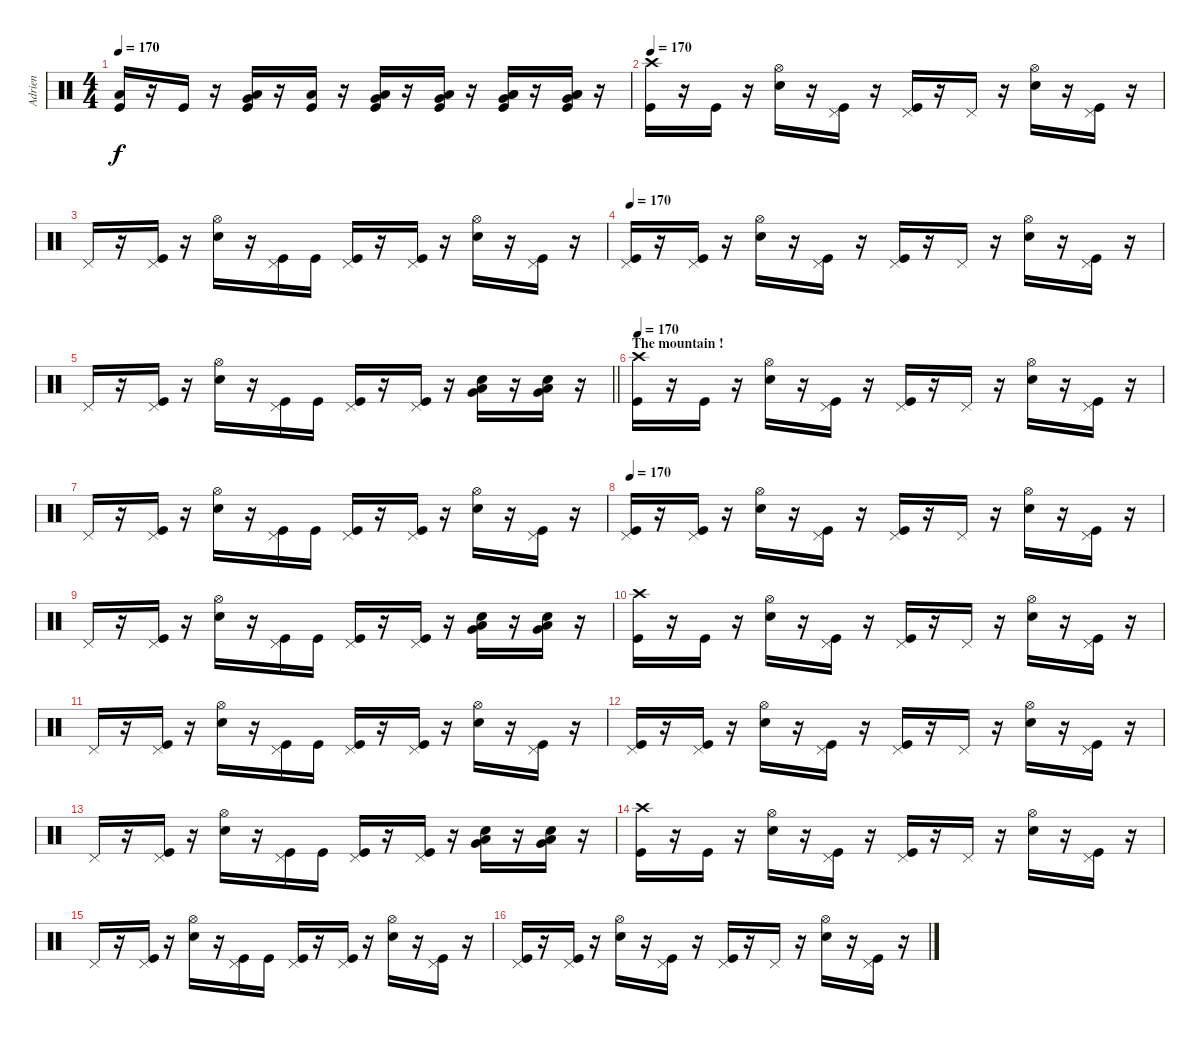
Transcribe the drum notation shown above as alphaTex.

\track ("Adrien" "Adrien") {instrument percussion}
\staff {score}
\articulation defaults
\ts (4 4)
\tempo 170
\clef neutral
\ks c
("Low Floor Tom (hit)" "Kick (hit)").16{dy f} r.16 "Kick (hit)".16 r.16 ("Very Low Tom (hit)" "Low Floor Tom (hit)" "Kick (hit)").16 r.16 ("Low Floor Tom (hit)" "Kick (hit)").16 r.16 ("Very Low Tom (hit)" "Low Floor Tom (hit)" "Kick (hit)").16 r.16 ("Very Low Tom (hit)" "Low Floor Tom (hit)" "Kick (hit)").16 r.16 ("Low Tom (hit)" "Low Floor Tom (hit)" "Very Low Tom (hit)" "Kick (hit)").16 r.16 ("Low Tom (hit)" "Low Floor Tom (hit)" "Very Low Tom (hit)" "Kick (hit)").16 r.16 |
\tempo 170
("Crash high (hit)" "Kick (hit)").16 r.16 "Kick (hit)".16 r.16 ("Hi-Hat (open)" "Electric Snare (hit)").16 r.16 ("Pedal Hi-Hat (hit)" "Kick (hit)").16 r.16 ("Pedal Hi-Hat (hit)" "Kick (hit)").16 r.16 "Pedal Hi-Hat (hit)".16 r.16 ("Hi-Hat (open)" "Electric Snare (hit)").16 r.16 ("Pedal Hi-Hat (hit)" "Kick (hit)").16 r.16 |
"Pedal Hi-Hat (hit)".16 r.16 ("Pedal Hi-Hat (hit)" "Kick (hit)").16 r.16 ("Hi-Hat (open)" "Electric Snare (hit)").16 r.16 ("Pedal Hi-Hat (hit)" "Kick (hit)").16 "Kick (hit)".16 ("Pedal Hi-Hat (hit)" "Kick (hit)").16 r.16 ("Pedal Hi-Hat (hit)" "Kick (hit)").16 r.16 ("Hi-Hat (open)" "Electric Snare (hit)").16 r.16 ("Pedal Hi-Hat (hit)" "Kick (hit)").16 r.16 |
\tempo 170
("Pedal Hi-Hat (hit)" "Kick (hit)").16 r.16 ("Pedal Hi-Hat (hit)" "Kick (hit)").16 r.16 ("Hi-Hat (open)" "Electric Snare (hit)").16 r.16 ("Pedal Hi-Hat (hit)" "Kick (hit)").16 r.16 ("Pedal Hi-Hat (hit)" "Kick (hit)").16 r.16 "Pedal Hi-Hat (hit)".16 r.16 ("Hi-Hat (open)" "Electric Snare (hit)").16 r.16 ("Pedal Hi-Hat (hit)" "Kick (hit)").16 r.16 |
\barLineRight lightlight "Pedal Hi-Hat (hit)".16
r.16 ("Pedal Hi-Hat (hit)" "Kick (hit)").16 r.16 ("Hi-Hat (open)" "Electric Snare (hit)").16 r.16 ("Pedal Hi-Hat (hit)" "Kick (hit)").16 "Kick (hit)".16 ("Pedal Hi-Hat (hit)" "Kick (hit)").16 r.16 ("Pedal Hi-Hat (hit)" "Kick (hit)").16 r.16 ("Very Low Tom (hit)" "Low Floor Tom (hit)" "Electric Snare (hit)").16 r.16 ("Very Low Tom (hit)" "Low Floor Tom (hit)" "Electric Snare (hit)").16 r.16 |
\section ("" "The mountain !")
\tempo 170
("Crash high (hit)" "Kick (hit)").16 r.16 "Kick (hit)".16 r.16 ("Hi-Hat (open)" "Electric Snare (hit)").16 r.16 ("Pedal Hi-Hat (hit)" "Kick (hit)").16 r.16 ("Pedal Hi-Hat (hit)" "Kick (hit)").16 r.16 "Pedal Hi-Hat (hit)".16 r.16 ("Hi-Hat (open)" "Electric Snare (hit)").16 r.16 ("Pedal Hi-Hat (hit)" "Kick (hit)").16 r.16 |
"Pedal Hi-Hat (hit)".16 r.16 ("Pedal Hi-Hat (hit)" "Kick (hit)").16 r.16 ("Hi-Hat (open)" "Electric Snare (hit)").16 r.16 ("Pedal Hi-Hat (hit)" "Kick (hit)").16 "Kick (hit)".16 ("Pedal Hi-Hat (hit)" "Kick (hit)").16 r.16 ("Pedal Hi-Hat (hit)" "Kick (hit)").16 r.16 ("Hi-Hat (open)" "Electric Snare (hit)").16 r.16 ("Pedal Hi-Hat (hit)" "Kick (hit)").16 r.16 |
\tempo 170
("Pedal Hi-Hat (hit)" "Kick (hit)").16 r.16 ("Pedal Hi-Hat (hit)" "Kick (hit)").16 r.16 ("Hi-Hat (open)" "Electric Snare (hit)").16 r.16 ("Pedal Hi-Hat (hit)" "Kick (hit)").16 r.16 ("Pedal Hi-Hat (hit)" "Kick (hit)").16 r.16 "Pedal Hi-Hat (hit)".16 r.16 ("Hi-Hat (open)" "Electric Snare (hit)").16 r.16 ("Pedal Hi-Hat (hit)" "Kick (hit)").16 r.16 |
"Pedal Hi-Hat (hit)".16 r.16 ("Pedal Hi-Hat (hit)" "Kick (hit)").16 r.16 ("Hi-Hat (open)" "Electric Snare (hit)").16 r.16 ("Pedal Hi-Hat (hit)" "Kick (hit)").16 "Kick (hit)".16 ("Pedal Hi-Hat (hit)" "Kick (hit)").16 r.16 ("Pedal Hi-Hat (hit)" "Kick (hit)").16 r.16 ("Very Low Tom (hit)" "Low Floor Tom (hit)" "Electric Snare (hit)").16 r.16 ("Very Low Tom (hit)" "Low Floor Tom (hit)" "Electric Snare (hit)").16 r.16 |
("Crash high (hit)" "Kick (hit)").16 r.16 "Kick (hit)".16 r.16 ("Hi-Hat (open)" "Electric Snare (hit)").16 r.16 ("Pedal Hi-Hat (hit)" "Kick (hit)").16 r.16 ("Pedal Hi-Hat (hit)" "Kick (hit)").16 r.16 "Pedal Hi-Hat (hit)".16 r.16 ("Hi-Hat (open)" "Electric Snare (hit)").16 r.16 ("Pedal Hi-Hat (hit)" "Kick (hit)").16 r.16 |
"Pedal Hi-Hat (hit)".16 r.16 ("Pedal Hi-Hat (hit)" "Kick (hit)").16 r.16 ("Hi-Hat (open)" "Electric Snare (hit)").16 r.16 ("Pedal Hi-Hat (hit)" "Kick (hit)").16 "Kick (hit)".16 ("Pedal Hi-Hat (hit)" "Kick (hit)").16 r.16 ("Pedal Hi-Hat (hit)" "Kick (hit)").16 r.16 ("Hi-Hat (open)" "Electric Snare (hit)").16 r.16 ("Pedal Hi-Hat (hit)" "Kick (hit)").16 r.16 |
("Pedal Hi-Hat (hit)" "Kick (hit)").16 r.16 ("Pedal Hi-Hat (hit)" "Kick (hit)").16 r.16 ("Hi-Hat (open)" "Electric Snare (hit)").16 r.16 ("Pedal Hi-Hat (hit)" "Kick (hit)").16 r.16 ("Pedal Hi-Hat (hit)" "Kick (hit)").16 r.16 "Pedal Hi-Hat (hit)".16 r.16 ("Hi-Hat (open)" "Electric Snare (hit)").16 r.16 ("Pedal Hi-Hat (hit)" "Kick (hit)").16 r.16 |
"Pedal Hi-Hat (hit)".16 r.16 ("Pedal Hi-Hat (hit)" "Kick (hit)").16 r.16 ("Hi-Hat (open)" "Electric Snare (hit)").16 r.16 ("Pedal Hi-Hat (hit)" "Kick (hit)").16 "Kick (hit)".16 ("Pedal Hi-Hat (hit)" "Kick (hit)").16 r.16 ("Pedal Hi-Hat (hit)" "Kick (hit)").16 r.16 ("Very Low Tom (hit)" "Low Floor Tom (hit)" "Electric Snare (hit)").16 r.16 ("Very Low Tom (hit)" "Low Floor Tom (hit)" "Electric Snare (hit)").16 r.16 |
("Crash high (hit)" "Kick (hit)").16 r.16 "Kick (hit)".16 r.16 ("Hi-Hat (open)" "Electric Snare (hit)").16 r.16 ("Pedal Hi-Hat (hit)" "Kick (hit)").16 r.16 ("Pedal Hi-Hat (hit)" "Kick (hit)").16 r.16 "Pedal Hi-Hat (hit)".16 r.16 ("Hi-Hat (open)" "Electric Snare (hit)").16 r.16 ("Pedal Hi-Hat (hit)" "Kick (hit)").16 r.16 |
"Pedal Hi-Hat (hit)".16 r.16 ("Pedal Hi-Hat (hit)" "Kick (hit)").16 r.16 ("Hi-Hat (open)" "Electric Snare (hit)").16 r.16 ("Pedal Hi-Hat (hit)" "Kick (hit)").16 "Kick (hit)".16 ("Pedal Hi-Hat (hit)" "Kick (hit)").16 r.16 ("Pedal Hi-Hat (hit)" "Kick (hit)").16 r.16 ("Hi-Hat (open)" "Electric Snare (hit)").16 r.16 ("Pedal Hi-Hat (hit)" "Kick (hit)").16 r.16 |
("Pedal Hi-Hat (hit)" "Kick (hit)").16 r.16 ("Pedal Hi-Hat (hit)" "Kick (hit)").16 r.16 ("Hi-Hat (open)" "Electric Snare (hit)").16 r.16 ("Pedal Hi-Hat (hit)" "Kick (hit)").16 r.16 ("Pedal Hi-Hat (hit)" "Kick (hit)").16 r.16 "Pedal Hi-Hat (hit)".16 r.16 ("Hi-Hat (open)" "Electric Snare (hit)").16 r.16 ("Pedal Hi-Hat (hit)" "Kick (hit)").16 r.16
